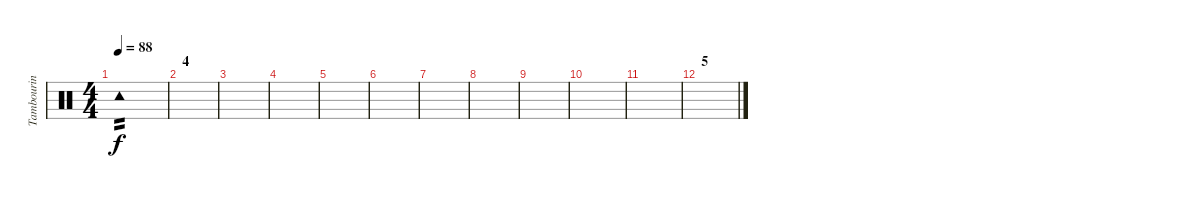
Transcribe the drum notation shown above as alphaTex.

\track ("Tambourin" "Tambourin") {instrument percussion}
\staff {score}
\articulation defaults
\ts (4 4)
\tempo 88
\clef neutral
\ks c "Tambourine (hit)".1{tp 2 dy f}
|
\section ("" "4")
|
|
|
|
|
|
|
|
|
|
\section ("" "5")
